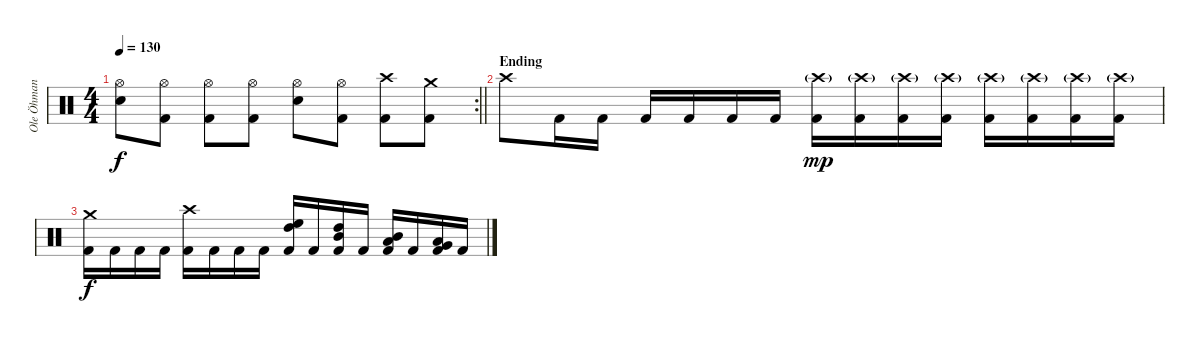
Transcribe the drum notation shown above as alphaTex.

\track ("Ole Öhman" "Ole Öhman") {instrument percussion}
\staff {score}
\articulation defaults
\rc 2
\ts (4 4)
\tempo 130
\clef neutral
\barLineRight lightlight
\ks c
("Hi-Hat (open)" "Electric Snare (hit)").8{dy f} ("Hi-Hat (open)" "Kick (hit) 2").8 ("Hi-Hat (open)" "Kick (hit) 2").8 ("Hi-Hat (open)" "Kick (hit) 2").8 ("Hi-Hat (open)" "Electric Snare (hit)").8 ("Hi-Hat (open)" "Kick (hit) 2").8 ("Crash high (hit)" "Kick (hit) 2").8 ("Crash medium (hit)" "Kick (hit) 2").8 |
\section ("" "Ending")
"Crash high (hit)".8 "Kick (hit) 2".16 "Kick (hit) 2".16 "Kick (hit) 2".16 "Kick (hit) 2".16 "Kick (hit) 2".16 "Kick (hit) 2".16 ("Crash high (hit)"{g} "Kick (hit) 2").16{dy mp} ("Crash high (hit)"{g} "Kick (hit) 2").16 ("Crash high (hit)"{g} "Kick (hit) 2").16 ("Crash high (hit)"{g} "Kick (hit) 2").16 ("Crash high (hit)"{g} "Kick (hit) 2").16 ("Crash high (hit)"{g} "Kick (hit) 2").16 ("Crash high (hit)"{g} "Kick (hit) 2").16 ("Crash high (hit)"{g} "Kick (hit) 2").16 |
("Crash medium (hit)" "Kick (hit) 2").16{dy f} "Kick (hit) 2".16 "Kick (hit) 2".16 "Kick (hit) 2".16 ("Crash high (hit)" "Kick (hit) 2").16 "Kick (hit) 2".16 "Kick (hit) 2".16 "Kick (hit) 2".16 ("High Floor Tom (hit)" "High Tom (hit)" "Kick (hit) 2").16 "Kick (hit) 2".16 ("High Tom (hit)" "Mid Tom (hit)" "Kick (hit) 2").16 "Kick (hit) 2".16 ("Mid Tom (hit)" "Low Tom (hit)" "Kick (hit) 2").16 "Kick (hit) 2".16 ("Low Tom (hit)" "Very Low Tom (hit)" "Kick (hit) 2").16 "Kick (hit) 2".16
